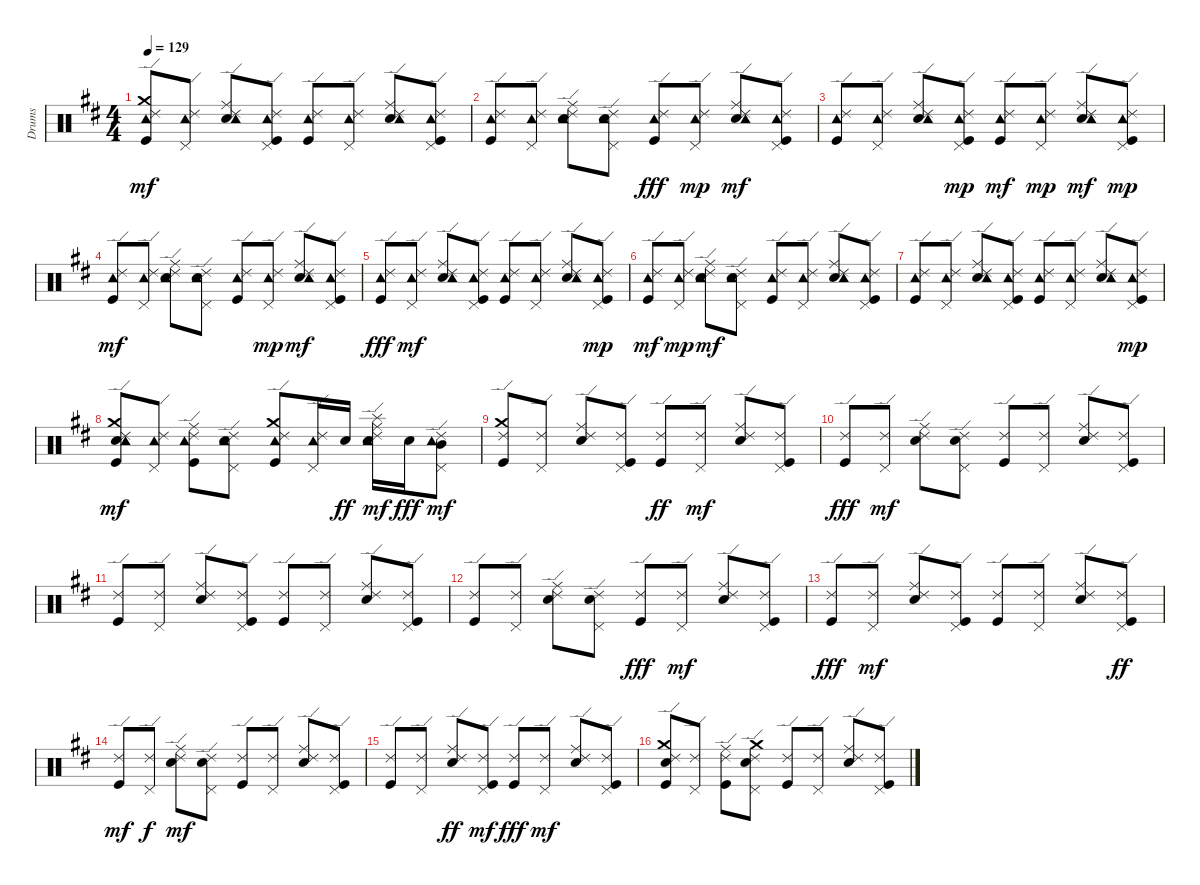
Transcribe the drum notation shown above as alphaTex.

\track ("Drums" "Drums") {instrument percussion}
\staff {score}
\articulation defaults
\ts (4 4)
\tempo 129
\clef neutral
\ks d
("Kick (hit)" "Tambourine (hit)" "Crash medium (hit)" "Ride (edge) 2").8{dy mf} ("Pedal Hi-Hat (hit)" "Tambourine (hit)" "Ride (edge) 2").8 ("Snare (hit) 2" "Ride (middle)" "Tambourine (hit)" "Ride (edge) 2").8 ("Kick (hit)" "Pedal Hi-Hat (hit)" "Tambourine (hit)" "Ride (edge) 2").8 ("Kick (hit)" "Tambourine (hit)" "Ride (edge) 2").8 ("Pedal Hi-Hat (hit)" "Tambourine (hit)" "Ride (edge) 2").8 ("Snare (hit) 2" "Ride (middle)" "Tambourine (hit)" "Ride (edge) 2").8 ("Kick (hit)" "Pedal Hi-Hat (hit)" "Tambourine (hit)" "Ride (edge) 2").8 |
("Kick (hit)" "Tambourine (hit)" "Ride (edge) 2").8 ("Pedal Hi-Hat (hit)" "Tambourine (hit)" "Ride (edge) 2").8 ("Snare (hit) 2" "Ride (middle)" "Tambourine (hit)" "Ride (edge) 2").8 ("Snare (hit) 2" "Pedal Hi-Hat (hit)" "Tambourine (hit)" "Ride (edge) 2").8 ("Kick (hit)" "Tambourine (hit)" "Ride (edge) 2").8{dy fff} ("Pedal Hi-Hat (hit)" "Tambourine (hit)" "Ride (edge) 2").8{dy mp} ("Snare (hit) 2" "Ride (middle)" "Tambourine (hit)" "Ride (edge) 2").8{dy mf} ("Kick (hit)" "Pedal Hi-Hat (hit)" "Tambourine (hit)" "Ride (edge) 2").8 |
("Kick (hit)" "Tambourine (hit)" "Ride (edge) 2").8 ("Pedal Hi-Hat (hit)" "Tambourine (hit)" "Ride (edge) 2").8 ("Snare (hit) 2" "Ride (middle)" "Tambourine (hit)" "Ride (edge) 2").8 ("Kick (hit)" "Pedal Hi-Hat (hit)" "Tambourine (hit)" "Ride (edge) 2").8{dy mp} ("Kick (hit)" "Tambourine (hit)" "Ride (edge) 2").8{dy mf} ("Pedal Hi-Hat (hit)" "Tambourine (hit)" "Ride (edge) 2").8{dy mp} ("Snare (hit) 2" "Ride (middle)" "Tambourine (hit)" "Ride (edge) 2").8{dy mf} ("Kick (hit)" "Pedal Hi-Hat (hit)" "Tambourine (hit)" "Ride (edge) 2").8{dy mp} |
("Kick (hit)" "Tambourine (hit)" "Ride (edge) 2").8{dy mf} ("Pedal Hi-Hat (hit)" "Tambourine (hit)" "Ride (edge) 2").8 ("Snare (hit) 2" "Ride (middle)" "Tambourine (hit)" "Ride (edge) 2").8 ("Snare (hit) 2" "Pedal Hi-Hat (hit)" "Tambourine (hit)" "Ride (edge) 2").8 ("Kick (hit)" "Tambourine (hit)" "Ride (edge) 2").8 ("Pedal Hi-Hat (hit)" "Tambourine (hit)" "Ride (edge) 2").8{dy mp} ("Snare (hit) 2" "Ride (middle)" "Tambourine (hit)" "Ride (edge) 2").8{dy mf} ("Kick (hit)" "Pedal Hi-Hat (hit)" "Tambourine (hit)" "Ride (edge) 2").8 |
("Kick (hit)" "Tambourine (hit)" "Ride (edge) 2").8{dy fff} ("Pedal Hi-Hat (hit)" "Tambourine (hit)" "Ride (edge) 2").8{dy mf} ("Snare (hit) 2" "Ride (middle)" "Tambourine (hit)" "Ride (edge) 2").8 ("Kick (hit)" "Pedal Hi-Hat (hit)" "Tambourine (hit)" "Ride (edge) 2").8 ("Kick (hit)" "Tambourine (hit)" "Ride (edge) 2").8 ("Pedal Hi-Hat (hit)" "Tambourine (hit)" "Ride (edge) 2").8 ("Snare (hit) 2" "Ride (middle)" "Tambourine (hit)" "Ride (edge) 2").8 ("Kick (hit)" "Pedal Hi-Hat (hit)" "Tambourine (hit)" "Ride (edge) 2").8{dy mp} |
("Kick (hit)" "Tambourine (hit)" "Ride (edge) 2").8{dy mf} ("Pedal Hi-Hat (hit)" "Tambourine (hit)" "Ride (edge) 2").8{dy mp} ("Snare (hit) 2" "Ride (middle)" "Tambourine (hit)" "Ride (edge) 2").8{dy mf} ("Snare (hit) 2" "Pedal Hi-Hat (hit)" "Tambourine (hit)" "Ride (edge) 2").8 ("Kick (hit)" "Tambourine (hit)" "Ride (edge) 2").8 ("Pedal Hi-Hat (hit)" "Tambourine (hit)" "Ride (edge) 2").8 ("Snare (hit) 2" "Ride (middle)" "Tambourine (hit)" "Ride (edge) 2").8 ("Kick (hit)" "Pedal Hi-Hat (hit)" "Tambourine (hit)" "Ride (edge) 2").8 |
("Kick (hit)" "Tambourine (hit)" "Ride (edge) 2").8 ("Pedal Hi-Hat (hit)" "Tambourine (hit)" "Ride (edge) 2").8 ("Snare (hit) 2" "Ride (middle)" "Tambourine (hit)" "Ride (edge) 2").8 ("Kick (hit)" "Pedal Hi-Hat (hit)" "Tambourine (hit)" "Ride (edge) 2").8 ("Kick (hit)" "Tambourine (hit)" "Ride (edge) 2").8 ("Pedal Hi-Hat (hit)" "Tambourine (hit)" "Ride (edge) 2").8 ("Snare (hit) 2" "Ride (middle)" "Tambourine (hit)" "Ride (edge) 2").8 ("Kick (hit)" "Pedal Hi-Hat (hit)" "Tambourine (hit)" "Ride (edge) 2").8{dy mp} |
("Kick (hit)" "Snare (hit) 2" "Tambourine (hit)" "Crash medium (hit)" "Ride (edge) 2").8{dy mf} ("Pedal Hi-Hat (hit)" "Tambourine (hit)" "Ride (edge) 2").8 ("Kick (hit)" "Ride (middle)" "Tambourine (hit)" "Ride (edge) 2").8 ("Snare (hit) 2" "Pedal Hi-Hat (hit)" "Tambourine (hit)" "Ride (edge) 2").8 ("Kick (hit)" "Tambourine (hit)" "Crash medium (hit)" "Ride (edge) 2").8 ("Pedal Hi-Hat (hit)" "Tambourine (hit)" "Ride (edge) 2").16 "Snare (hit) 2".16{dy ff} ("Snare (hit) 2" "Ride (middle)" "Tambourine (hit)" "Splash (hit)" "Ride (edge) 2").16{dy mf} "Snare (hit) 2".16{dy fff} ("Pedal Hi-Hat (hit)" "Mid Tom (hit)" "Tambourine (hit)" "Ride (edge) 2").8{dy mf} |
("Kick (hit)" "Crash medium (hit)" "Ride (edge) 2").8 ("Pedal Hi-Hat (hit)" "Ride (edge) 2").8 ("Snare (hit) 2" "Ride (middle)" "Ride (edge) 2").8 ("Kick (hit)" "Pedal Hi-Hat (hit)" "Ride (edge) 2").8 ("Kick (hit)" "Ride (edge) 2").8{dy ff} ("Pedal Hi-Hat (hit)" "Ride (edge) 2").8{dy mf} ("Snare (hit) 2" "Ride (middle)" "Ride (edge) 2").8 ("Kick (hit)" "Pedal Hi-Hat (hit)" "Ride (edge) 2").8 |
("Kick (hit)" "Ride (edge) 2").8{dy fff} ("Pedal Hi-Hat (hit)" "Ride (edge) 2").8{dy mf} ("Snare (hit) 2" "Ride (middle)" "Ride (edge) 2").8 ("Snare (hit) 2" "Pedal Hi-Hat (hit)" "Ride (edge) 2").8 ("Kick (hit)" "Ride (edge) 2").8 ("Pedal Hi-Hat (hit)" "Ride (edge) 2").8 ("Snare (hit) 2" "Ride (middle)" "Ride (edge) 2").8 ("Kick (hit)" "Pedal Hi-Hat (hit)" "Ride (edge) 2").8 |
("Kick (hit)" "Ride (edge) 2").8 ("Pedal Hi-Hat (hit)" "Ride (edge) 2").8 ("Snare (hit) 2" "Ride (middle)" "Ride (edge) 2").8 ("Kick (hit)" "Pedal Hi-Hat (hit)" "Ride (edge) 2").8 ("Kick (hit)" "Ride (edge) 2").8 ("Pedal Hi-Hat (hit)" "Ride (edge) 2").8 ("Snare (hit) 2" "Ride (middle)" "Ride (edge) 2").8 ("Kick (hit)" "Pedal Hi-Hat (hit)" "Ride (edge) 2").8 |
("Kick (hit)" "Ride (edge) 2").8 ("Pedal Hi-Hat (hit)" "Ride (edge) 2").8 ("Snare (hit) 2" "Ride (middle)" "Ride (edge) 2").8 ("Snare (hit) 2" "Pedal Hi-Hat (hit)" "Ride (edge) 2").8 ("Kick (hit)" "Ride (edge) 2").8{dy fff} ("Pedal Hi-Hat (hit)" "Ride (edge) 2").8{dy mf} ("Snare (hit) 2" "Ride (middle)" "Ride (edge) 2").8 ("Kick (hit)" "Pedal Hi-Hat (hit)" "Ride (edge) 2").8 |
("Kick (hit)" "Ride (edge) 2").8{dy fff} ("Pedal Hi-Hat (hit)" "Ride (edge) 2").8{dy mf} ("Snare (hit) 2" "Ride (middle)" "Ride (edge) 2").8 ("Kick (hit)" "Pedal Hi-Hat (hit)" "Ride (edge) 2").8 ("Kick (hit)" "Ride (edge) 2").8 ("Pedal Hi-Hat (hit)" "Ride (edge) 2").8 ("Snare (hit) 2" "Ride (middle)" "Ride (edge) 2").8 ("Kick (hit)" "Pedal Hi-Hat (hit)" "Ride (edge) 2").8{dy ff} |
("Kick (hit)" "Ride (edge) 2").8{dy mf} ("Pedal Hi-Hat (hit)" "Ride (edge) 2").8{dy f} ("Snare (hit) 2" "Ride (middle)" "Ride (edge) 2").8{dy mf} ("Snare (hit) 2" "Pedal Hi-Hat (hit)" "Ride (edge) 2").8 ("Kick (hit)" "Ride (edge) 2").8 ("Pedal Hi-Hat (hit)" "Ride (edge) 2").8 ("Snare (hit) 2" "Ride (middle)" "Ride (edge) 2").8 ("Kick (hit)" "Pedal Hi-Hat (hit)" "Ride (edge) 2").8 |
("Kick (hit)" "Ride (edge) 2").8 ("Pedal Hi-Hat (hit)" "Ride (edge) 2").8 ("Snare (hit) 2" "Ride (middle)" "Ride (edge) 2").8{dy ff} ("Kick (hit)" "Pedal Hi-Hat (hit)" "Ride (edge) 2").8{dy mf} ("Kick (hit)" "Ride (edge) 2").8{dy fff} ("Pedal Hi-Hat (hit)" "Ride (edge) 2").8{dy mf} ("Snare (hit) 2" "Ride (middle)" "Ride (edge) 2").8 ("Kick (hit)" "Pedal Hi-Hat (hit)" "Ride (edge) 2").8 |
("Kick (hit)" "Snare (hit) 2" "Crash medium (hit)" "Ride (edge) 2").8 ("Pedal Hi-Hat (hit)" "Ride (edge) 2").8 ("Kick (hit)" "Ride (middle)" "Ride (edge) 2").8 ("Snare (hit) 2" "Pedal Hi-Hat (hit)" "Crash medium (hit)" "Ride (edge) 2").8 ("Kick (hit)" "Ride (edge) 2").8 ("Pedal Hi-Hat (hit)" "Ride (edge) 2").8 ("Snare (hit) 2" "Ride (middle)" "Ride (edge) 2").8 ("Kick (hit)" "Pedal Hi-Hat (hit)" "Ride (edge) 2").8
